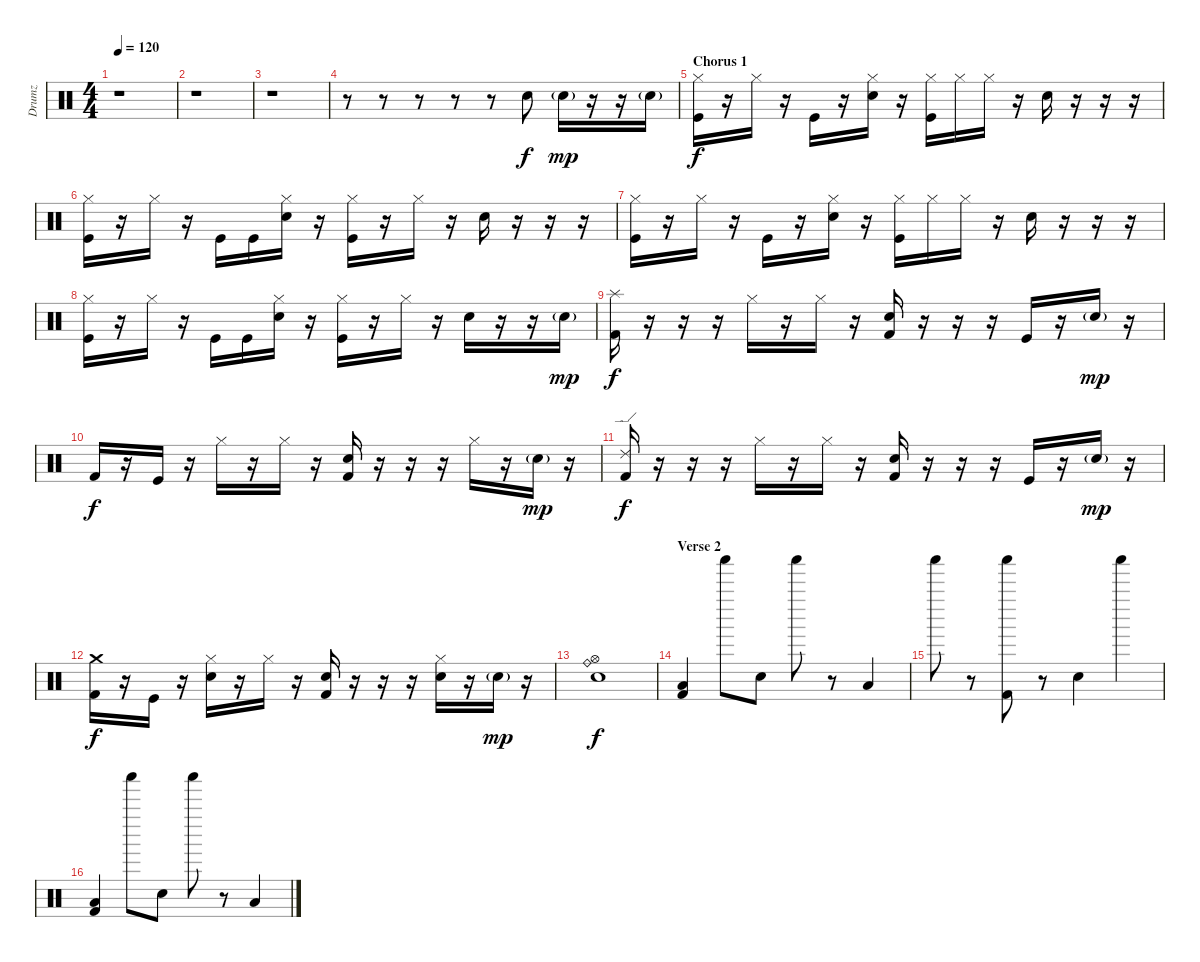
\track ("Drumz" "Drumz") {instrument percussion}
\staff {score}
\articulation defaults
\ts (4 4)
\tempo 120
\clef neutral
\ks c
r.1{dy f} |
r.1 |
r.1 |
r.8 r.8 r.8 r.8 r.8 "Electric Snare (hit)".8 "Electric Snare (hit)"{g}.16{dy mp} r.16 r.16 "Electric Snare (hit)"{g}.16 |
\section ("" "Chorus 1")
("Hi-Hat (closed)" "Kick (hit)").16{dy f} r.16 "Hi-Hat (closed)".16 r.16 "Kick (hit)".16 r.16 ("Hi-Hat (closed)" "Electric Snare (hit)").16 r.16 ("Hi-Hat (closed)" "Kick (hit)").16 "Hi-Hat (closed)".16 "Hi-Hat (closed)".16 r.16 "Electric Snare (hit)".16 r.16 r.16 r.16 |
("Hi-Hat (closed)" "Kick (hit)").16 r.16 "Hi-Hat (closed)".16 r.16 "Kick (hit)".16 "Kick (hit)".16 ("Hi-Hat (closed)" "Electric Snare (hit)").16 r.16 ("Hi-Hat (closed)" "Kick (hit)").16 r.16 "Hi-Hat (closed)".16 r.16 "Electric Snare (hit)".16 r.16 r.16 r.16 |
("Hi-Hat (closed)" "Kick (hit)").16 r.16 "Hi-Hat (closed)".16 r.16 "Kick (hit)".16 r.16 ("Hi-Hat (closed)" "Electric Snare (hit)").16 r.16 ("Hi-Hat (closed)" "Kick (hit)").16 "Hi-Hat (closed)".16 "Hi-Hat (closed)".16 r.16 "Electric Snare (hit)".16 r.16 r.16 r.16 |
("Hi-Hat (closed)" "Kick (hit)").16 r.16 "Hi-Hat (closed)".16 r.16 "Kick (hit)".16 "Kick (hit)".16 ("Hi-Hat (closed)" "Electric Snare (hit)").16 r.16 ("Hi-Hat (closed)" "Kick (hit)").16 r.16 "Hi-Hat (closed)".16 r.16 "Electric Snare (hit)".16 r.16 r.16 "Electric Snare (hit)"{g}.16{dy mp} |
("Splash (hit)" "Kick (hit) 2").16{dy f} r.16 r.16 r.16 "Hi-Hat (closed)".16 r.16 "Hi-Hat (closed)".16 r.16 ("Electric Snare (hit)" "Kick (hit) 2").16 r.16 r.16 r.16 "Kick (hit)".16 r.16 "Electric Snare (hit)"{g}.16{dy mp} r.16 |
"Kick (hit) 2".16{dy f} r.16 "Kick (hit)".16 r.16 "Hi-Hat (closed)".16 r.16 "Hi-Hat (closed)".16 r.16 ("Electric Snare (hit)" "Kick (hit) 2").16 r.16 r.16 r.16 "Hi-Hat (closed)".16 r.16 "Electric Snare (hit)"{g}.16{dy mp} r.16 |
("Ride (edge) 2" "Kick (hit) 2").16{dy f} r.16 r.16 r.16 "Hi-Hat (closed)".16 r.16 "Hi-Hat (closed)".16 r.16 ("Electric Snare (hit)" "Kick (hit) 2").16 r.16 r.16 r.16 "Kick (hit)".16 r.16 "Electric Snare (hit)"{g}.16{dy mp} r.16 |
("Crash medium (hit)" "Kick (hit) 2").16{dy f} r.16 "Kick (hit)".16 r.16 ("Electric Snare (hit)" "Hi-Hat (closed)").16 r.16 "Hi-Hat (closed)".16 r.16 ("Electric Snare (hit)" "Kick (hit) 2").16 r.16 r.16 r.16 ("Electric Snare (hit)" "Hi-Hat (closed)").16 r.16 "Electric Snare (hit)"{g}.16{dy mp} r.16 |
("Ride (bell)" "Hi-Hat (open)" "Electric Snare (hit)").1{dy f} |
\section ("" "Verse 2")
("Low Tom (hit)" "Kick (hit) 2").4 "Shaker (hit)".8 "Electric Snare (hit)".8 "Shaker (hit)".8 r.8 "Low Tom (hit)".4 |
"Shaker (hit)".8 r.8 ("Kick (hit) 2" "Shaker (hit)").8 r.8 "Electric Snare (hit)".4 "Shaker (hit)".4 |
("Low Tom (hit)" "Kick (hit) 2").4 "Shaker (hit)".8 "Electric Snare (hit)".8 "Shaker (hit)".8 r.8 "Low Tom (hit)".4
